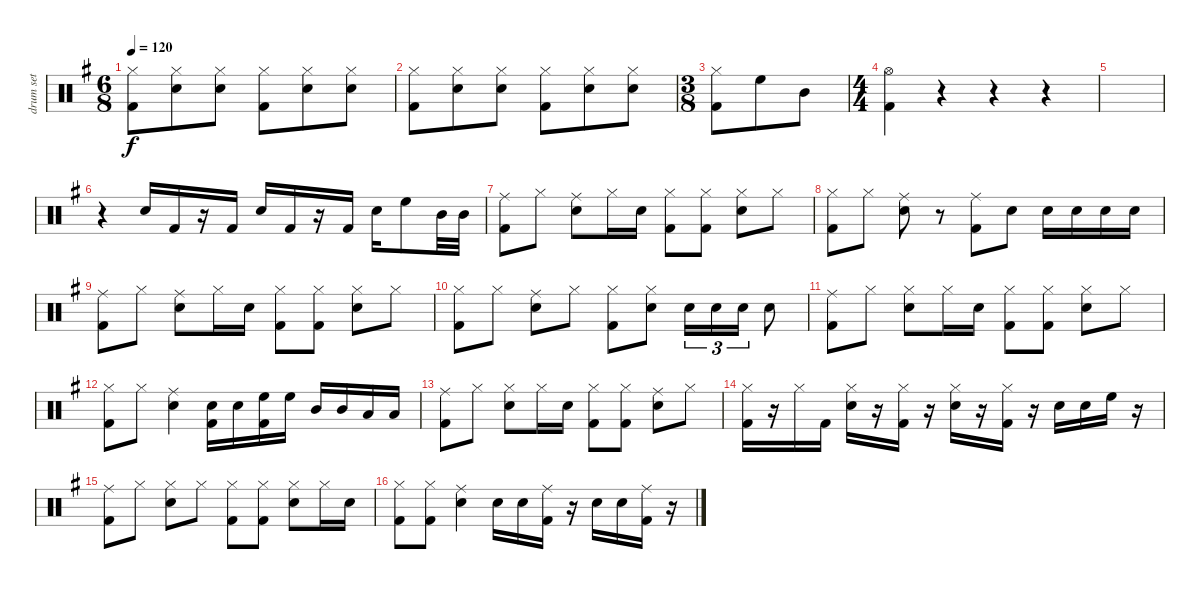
\track ("drum set" "drum set") {instrument percussion}
\staff {score}
\articulation defaults
\ts (6 8)
\tempo 120
\clef neutral
\ks g
("Hi-Hat (closed)" "Kick (hit) 2").8{dy f} ("Hi-Hat (closed)" "Snare (hit) 2").8 ("Hi-Hat (closed)" "Snare (hit) 2").8 ("Hi-Hat (closed)" "Kick (hit) 2").8 ("Hi-Hat (closed)" "Snare (hit) 2").8 ("Hi-Hat (closed)" "Snare (hit) 2").8 |
("Hi-Hat (closed)" "Kick (hit) 2").8 ("Hi-Hat (closed)" "Snare (hit) 2").8 ("Hi-Hat (closed)" "Snare (hit) 2").8 ("Hi-Hat (closed)" "Kick (hit) 2").8 ("Hi-Hat (closed)" "Snare (hit) 2").8 ("Hi-Hat (closed)" "Snare (hit) 2").8 |
\ts (3 8)
("Hi-Hat (closed)" "Kick (hit) 2").8 "High Floor Tom (hit)".8 "Mid Tom (hit)".8 |
\ts (4 4)
("Hi-Hat (open)" "Kick (hit) 2").4 r.4 r.4 r.4 |
|
r.4 "Snare (hit) 2".16 "Kick (hit) 2".16 r.16 "Kick (hit) 2".16 "Snare (hit) 2".16 "Kick (hit) 2".16 r.16 "Kick (hit) 2".16 "Snare (hit) 2".16 "High Floor Tom (hit)".8 "Mid Tom (hit)".32 "Mid Tom (hit)".32 |
("Ride (middle)" "Kick (hit) 2").8 "Hi-Hat (closed)".8 ("Ride (middle)" "Snare (hit) 2").8 "Hi-Hat (closed)".16 "Snare (hit) 2".16 ("Hi-Hat (closed)" "Kick (hit) 2").8 ("Hi-Hat (closed)" "Kick (hit) 2").8 ("Hi-Hat (closed)" "Snare (hit) 2").8 "Hi-Hat (closed)".8 |
("Hi-Hat (closed)" "Kick (hit) 2").8 "Hi-Hat (closed)".8 ("Ride (middle)" "Snare (hit) 2").8 r.8 ("Ride (middle)" "Kick (hit) 2").8 "Snare (hit) 2".8 "Snare (hit) 2".16 "Snare (hit) 2".16 "Snare (hit) 2".16 "Snare (hit) 2".16 |
("Ride (middle)" "Kick (hit) 2").8 "Hi-Hat (closed)".8 ("Ride (middle)" "Snare (hit) 2").8 "Hi-Hat (closed)".16 "Snare (hit) 2".16 ("Hi-Hat (closed)" "Kick (hit) 2").8 ("Hi-Hat (closed)" "Kick (hit) 2").8 ("Hi-Hat (closed)" "Snare (hit) 2").8 "Hi-Hat (closed)".8 |
("Hi-Hat (closed)" "Kick (hit) 2").8 "Hi-Hat (closed)".8 ("Ride (middle)" "Snare (hit) 2").8 "Hi-Hat (closed)".8 ("Hi-Hat (closed)" "Kick (hit) 2").8 ("Hi-Hat (closed)" "Snare (hit) 2").8 "Snare (hit) 2".16{tu (3 2)} "Snare (hit) 2".16{tu (3 2)} "Snare (hit) 2".16{tu (3 2)} "Snare (hit) 2".8 |
("Ride (middle)" "Kick (hit) 2").8 "Hi-Hat (closed)".8 ("Hi-Hat (closed)" "Snare (hit) 2").8 "Hi-Hat (closed)".16 "Snare (hit) 2".16 ("Hi-Hat (closed)" "Kick (hit) 2").8 ("Hi-Hat (closed)" "Kick (hit) 2").8 ("Hi-Hat (closed)" "Snare (hit) 2").8 "Hi-Hat (closed)".8 |
("Hi-Hat (closed)" "Kick (hit) 2").8 "Hi-Hat (closed)".8 ("Ride (middle)" "Snare (hit) 2").4 ("Snare (hit) 2" "Kick (hit) 2").16 "Snare (hit) 2".16 ("High Floor Tom (hit)" "Kick (hit) 2").16 "High Floor Tom (hit)".16 "Mid Tom (hit)".16 "Mid Tom (hit)".16 "Low Tom (hit)".16 "Low Tom (hit)".16 |
("Ride (middle)" "Kick (hit) 2").8 "Hi-Hat (closed)".8 ("Hi-Hat (closed)" "Snare (hit) 2").8 "Hi-Hat (closed)".16 "Snare (hit) 2".16 ("Hi-Hat (closed)" "Kick (hit) 2").8 ("Hi-Hat (closed)" "Kick (hit) 2").8 ("Ride (middle)" "Snare (hit) 2").8 "Hi-Hat (closed)".8 |
("Hi-Hat (closed)" "Kick (hit) 2").16 r.16 "Hi-Hat (closed)".16 "Kick (hit) 2".16 ("Hi-Hat (closed)" "Snare (hit) 2").16 r.16 ("Hi-Hat (closed)" "Kick (hit) 2").16 r.16 ("Hi-Hat (closed)" "Snare (hit) 2").16 r.16 ("Hi-Hat (closed)" "Kick (hit) 2").16 r.16 "Snare (hit) 2".16 "Snare (hit) 2".16 "High Floor Tom (hit)".16 r.16 |
("Ride (middle)" "Kick (hit) 2").8 "Hi-Hat (closed)".8 ("Hi-Hat (closed)" "Snare (hit) 2").8 "Hi-Hat (closed)".8 ("Hi-Hat (closed)" "Kick (hit) 2").8 ("Hi-Hat (closed)" "Kick (hit) 2").8 ("Hi-Hat (closed)" "Snare (hit) 2").8 "Hi-Hat (closed)".16 "Snare (hit) 2".16 |
("Hi-Hat (closed)" "Kick (hit) 2").8 ("Hi-Hat (closed)" "Kick (hit) 2").8 ("Ride (middle)" "Snare (hit) 2").4 "Snare (hit) 2".16 "Snare (hit) 2".16 ("Ride (middle)" "Kick (hit) 2").16 r.16 "Snare (hit) 2".16 "Snare (hit) 2".16 ("Ride (middle)" "Kick (hit) 2").16 r.16
